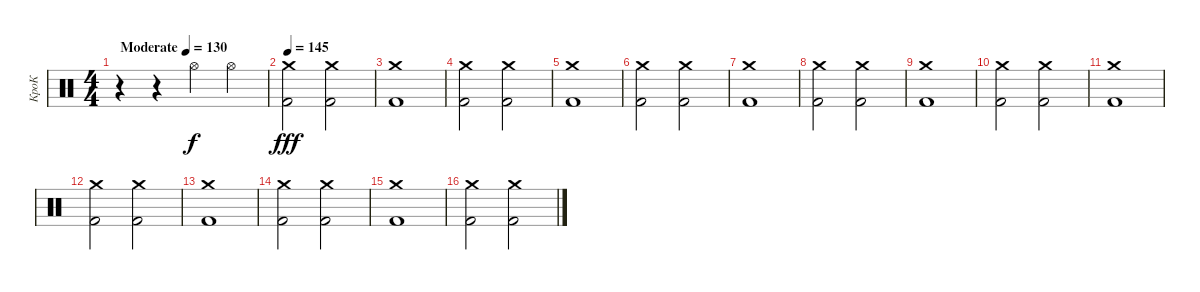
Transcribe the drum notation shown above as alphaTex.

\track ("КроК" "КроК") {instrument percussion}
\staff {score}
\articulation defaults
\ts (4 4)
\tempo (130 "Moderate")
\clef neutral
\ks c
r.4{dy f} r.4 "Hi-Hat (open)".4 "Hi-Hat (open)".4 |
\tempo 145
("Kick (hit) 2" "Crash medium (hit)").2{dy fff} ("Kick (hit) 2" "Crash medium (hit)").2 |
("Kick (hit) 2" "Crash medium (hit)").1 |
("Kick (hit) 2" "Crash medium (hit)").2 ("Kick (hit) 2" "Crash medium (hit)").2 |
("Kick (hit) 2" "Crash medium (hit)").1 |
("Kick (hit) 2" "Crash medium (hit)").2 ("Kick (hit) 2" "Crash medium (hit)").2 |
("Kick (hit) 2" "Crash medium (hit)").1 |
("Kick (hit) 2" "Crash medium (hit)").2 ("Kick (hit) 2" "Crash medium (hit)").2 |
("Kick (hit) 2" "Crash medium (hit)").1 |
("Kick (hit) 2" "Crash medium (hit)").2 ("Kick (hit) 2" "Crash medium (hit)").2 |
("Kick (hit) 2" "Crash medium (hit)").1 |
("Kick (hit) 2" "Crash medium (hit)").2 ("Kick (hit) 2" "Crash medium (hit)").2 |
("Kick (hit) 2" "Crash medium (hit)").1 |
("Kick (hit) 2" "Crash medium (hit)").2 ("Kick (hit) 2" "Crash medium (hit)").2 |
("Kick (hit) 2" "Crash medium (hit)").1 |
("Kick (hit) 2" "Crash medium (hit)").2 ("Kick (hit) 2" "Crash medium (hit)").2
